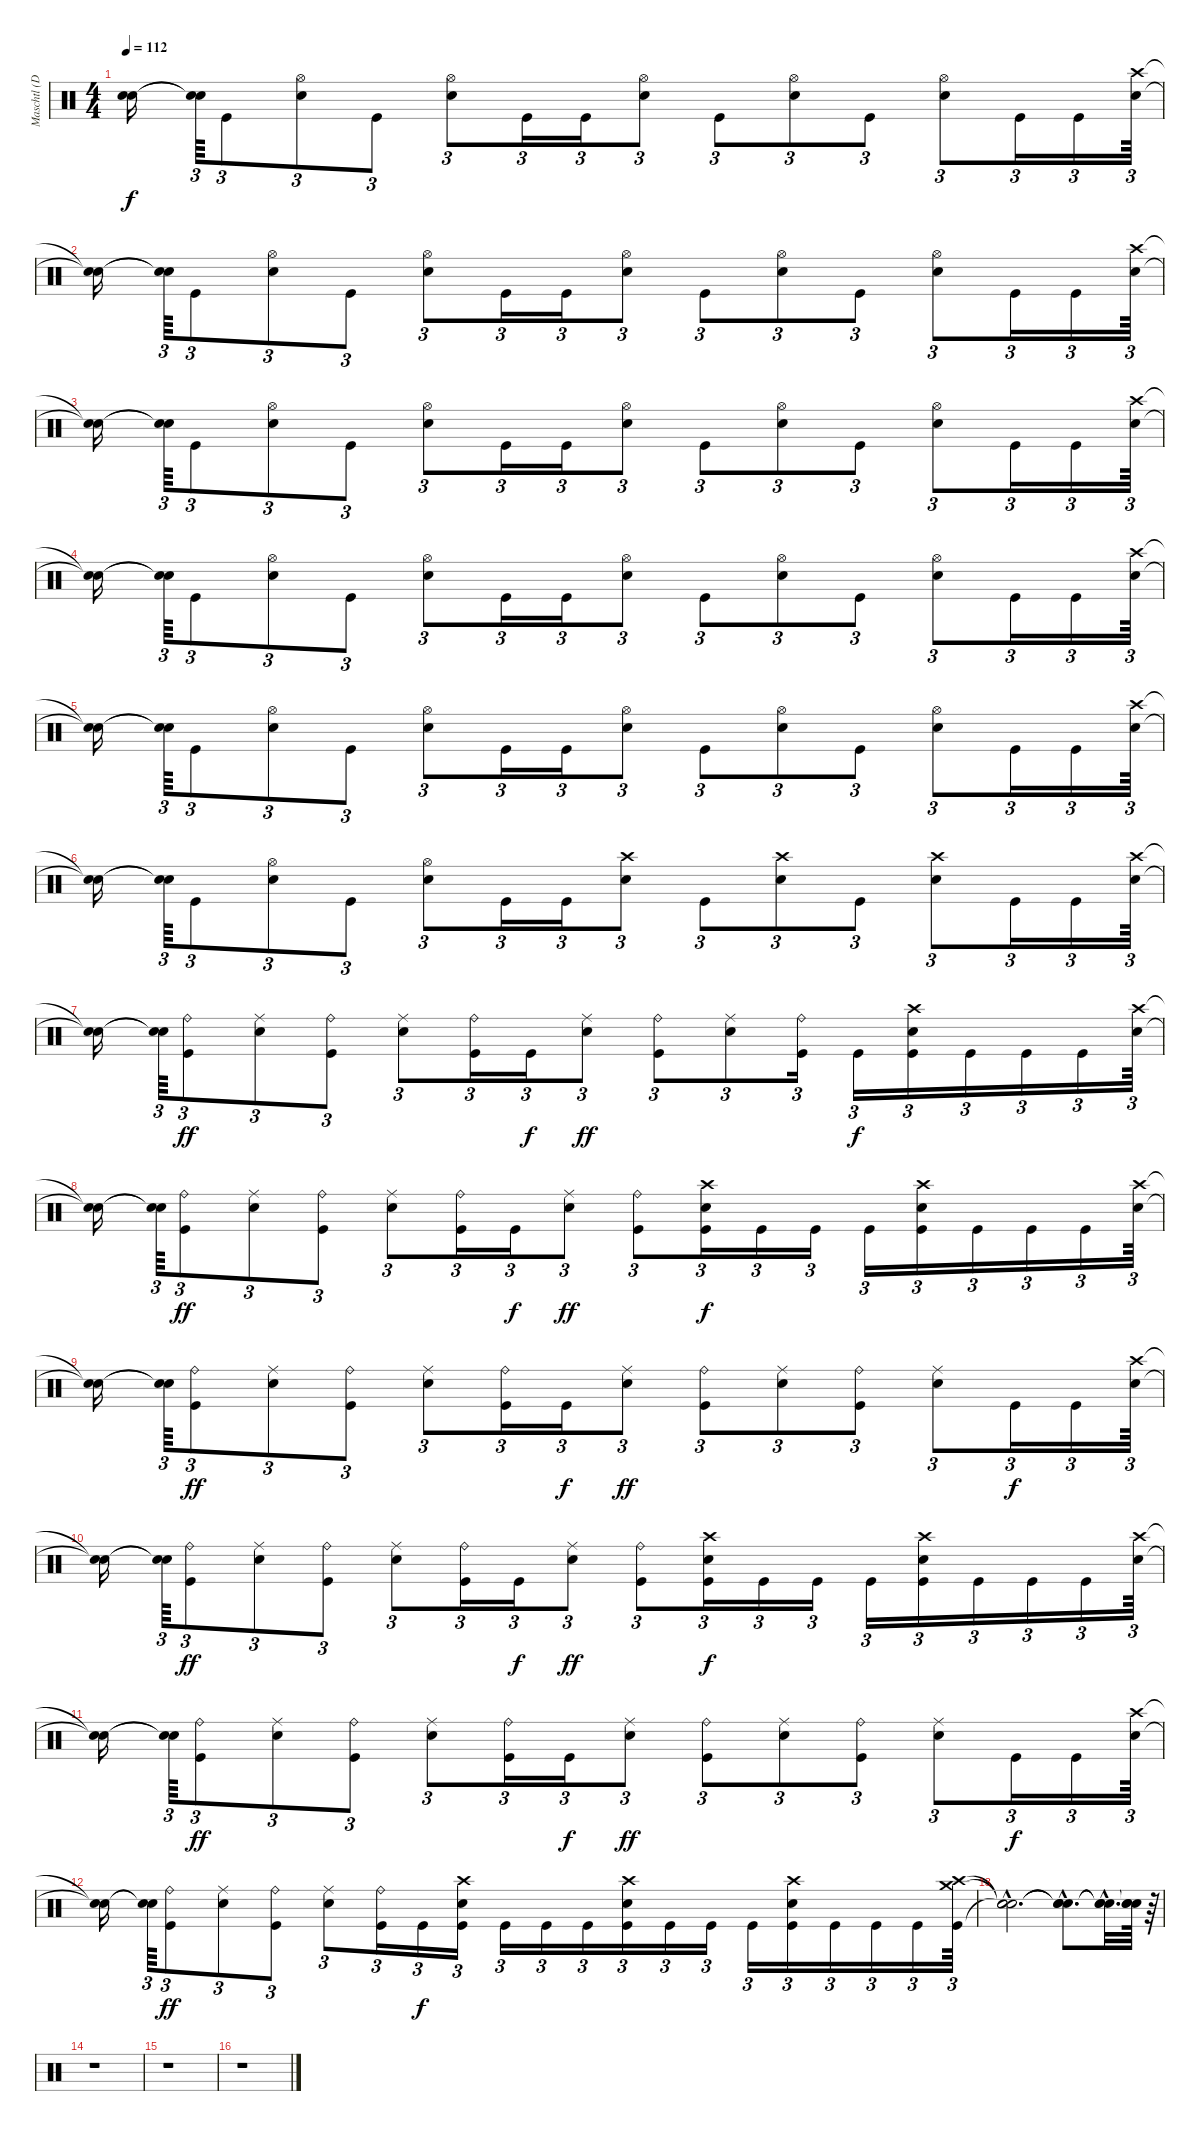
\track ("Maschtl (Drums)" "Maschtl (D") {instrument percussion}
\staff {score}
\articulation defaults
\ts (4 4)
\tempo 112
\clef neutral
\ks c
("Snare (hit)"{t} "Snare (hit)"{t}).16{dy f} ("Snare (hit)"{t} "Snare (hit)"{t}).64{tu (3 2)} "Kick (hit)".8{tu (3 2)} ("Hi-Hat (open)" "Electric Snare (hit)").8{tu (3 2)} "Kick (hit)".8{tu (3 2)} ("Hi-Hat (open)" "Electric Snare (hit)").8{tu (3 2)} "Kick (hit)".16{tu (3 2)} "Kick (hit)".16{tu (3 2)} ("Hi-Hat (open)" "Electric Snare (hit)").8{tu (3 2)} "Kick (hit)".8{tu (3 2)} ("Hi-Hat (open)" "Electric Snare (hit)").8{tu (3 2)} "Kick (hit)".8{tu (3 2)} ("Hi-Hat (open)" "Electric Snare (hit)").8{tu (3 2)} "Kick (hit)".16{tu (3 2)} "Kick (hit)".16{tu (3 2)} ("Crash high (hit)" "Electric Snare (hit)").64{tu (3 2)} |
("Snare (hit)"{t} "Snare (hit)"{t}).16 ("Snare (hit)"{t} "Snare (hit)"{t}).64{tu (3 2)} "Kick (hit)".8{tu (3 2)} ("Hi-Hat (open)" "Electric Snare (hit)").8{tu (3 2)} "Kick (hit)".8{tu (3 2)} ("Hi-Hat (open)" "Electric Snare (hit)").8{tu (3 2)} "Kick (hit)".16{tu (3 2)} "Kick (hit)".16{tu (3 2)} ("Hi-Hat (open)" "Electric Snare (hit)").8{tu (3 2)} "Kick (hit)".8{tu (3 2)} ("Hi-Hat (open)" "Electric Snare (hit)").8{tu (3 2)} "Kick (hit)".8{tu (3 2)} ("Hi-Hat (open)" "Electric Snare (hit)").8{tu (3 2)} "Kick (hit)".16{tu (3 2)} "Kick (hit)".16{tu (3 2)} ("Crash high (hit)" "Electric Snare (hit)").64{tu (3 2)} |
("Snare (hit)"{t} "Snare (hit)"{t}).16 ("Snare (hit)"{t} "Snare (hit)"{t}).64{tu (3 2)} "Kick (hit)".8{tu (3 2)} ("Hi-Hat (open)" "Electric Snare (hit)").8{tu (3 2)} "Kick (hit)".8{tu (3 2)} ("Hi-Hat (open)" "Electric Snare (hit)").8{tu (3 2)} "Kick (hit)".16{tu (3 2)} "Kick (hit)".16{tu (3 2)} ("Hi-Hat (open)" "Electric Snare (hit)").8{tu (3 2)} "Kick (hit)".8{tu (3 2)} ("Hi-Hat (open)" "Electric Snare (hit)").8{tu (3 2)} "Kick (hit)".8{tu (3 2)} ("Hi-Hat (open)" "Electric Snare (hit)").8{tu (3 2)} "Kick (hit)".16{tu (3 2)} "Kick (hit)".16{tu (3 2)} ("Crash high (hit)" "Electric Snare (hit)").64{tu (3 2)} |
("Snare (hit)"{t} "Snare (hit)"{t}).16 ("Snare (hit)"{t} "Snare (hit)"{t}).64{tu (3 2)} "Kick (hit)".8{tu (3 2)} ("Hi-Hat (open)" "Electric Snare (hit)").8{tu (3 2)} "Kick (hit)".8{tu (3 2)} ("Hi-Hat (open)" "Electric Snare (hit)").8{tu (3 2)} "Kick (hit)".16{tu (3 2)} "Kick (hit)".16{tu (3 2)} ("Hi-Hat (open)" "Electric Snare (hit)").8{tu (3 2)} "Kick (hit)".8{tu (3 2)} ("Hi-Hat (open)" "Electric Snare (hit)").8{tu (3 2)} "Kick (hit)".8{tu (3 2)} ("Hi-Hat (open)" "Electric Snare (hit)").8{tu (3 2)} "Kick (hit)".16{tu (3 2)} "Kick (hit)".16{tu (3 2)} ("Crash high (hit)" "Electric Snare (hit)").64{tu (3 2)} |
("Snare (hit)"{t} "Snare (hit)"{t}).16 ("Snare (hit)"{t} "Snare (hit)"{t}).64{tu (3 2)} "Kick (hit)".8{tu (3 2)} ("Hi-Hat (open)" "Electric Snare (hit)").8{tu (3 2)} "Kick (hit)".8{tu (3 2)} ("Hi-Hat (open)" "Electric Snare (hit)").8{tu (3 2)} "Kick (hit)".16{tu (3 2)} "Kick (hit)".16{tu (3 2)} ("Hi-Hat (open)" "Electric Snare (hit)").8{tu (3 2)} "Kick (hit)".8{tu (3 2)} ("Hi-Hat (open)" "Electric Snare (hit)").8{tu (3 2)} "Kick (hit)".8{tu (3 2)} ("Hi-Hat (open)" "Electric Snare (hit)").8{tu (3 2)} "Kick (hit)".16{tu (3 2)} "Kick (hit)".16{tu (3 2)} ("Crash high (hit)" "Electric Snare (hit)").64{tu (3 2)} |
("Snare (hit)"{t} "Snare (hit)"{t}).16 ("Snare (hit)"{t} "Snare (hit)"{t}).64{tu (3 2)} "Kick (hit)".8{tu (3 2)} ("Hi-Hat (open)" "Electric Snare (hit)").8{tu (3 2)} "Kick (hit)".8{tu (3 2)} ("Hi-Hat (open)" "Electric Snare (hit)").8{tu (3 2)} "Kick (hit)".16{tu (3 2)} "Kick (hit)".16{tu (3 2)} ("Crash high (hit)" "Electric Snare (hit)").8{tu (3 2)} "Kick (hit)".8{tu (3 2)} ("Crash high (hit)" "Electric Snare (hit)").8{tu (3 2)} "Kick (hit)".8{tu (3 2)} ("Crash high (hit)" "Electric Snare (hit)").8{tu (3 2)} "Kick (hit)".16{tu (3 2)} "Kick (hit)".16{tu (3 2)} ("Crash high (hit)" "Electric Snare (hit)").64{tu (3 2)} |
("Snare (hit)"{t} "Snare (hit)"{t}).16 ("Snare (hit)"{t} "Snare (hit)"{t}).64{tu (3 2)} ("Ride (bell)" "Kick (hit)").8{tu (3 2) dy ff} ("Ride (middle)" "Electric Snare (hit)").8{tu (3 2)} ("Ride (bell)" "Kick (hit)").8{tu (3 2)} ("Ride (middle)" "Electric Snare (hit)").8{tu (3 2)} ("Ride (bell)" "Kick (hit)").16{tu (3 2)} "Kick (hit)".16{tu (3 2) dy f} ("Ride (middle)" "Electric Snare (hit)").8{tu (3 2) dy ff} ("Ride (bell)" "Kick (hit)").8{tu (3 2)} ("Ride (middle)" "Electric Snare (hit)").8{tu (3 2)} ("Ride (bell)" "Kick (hit)").16{tu (3 2)} "Kick (hit)".16{tu (3 2) dy f} ("Crash high (hit)" "Electric Snare (hit)" "Kick (hit)").16{tu (3 2)} "Kick (hit)".16{tu (3 2)} "Kick (hit)".16{tu (3 2)} "Kick (hit)".16{tu (3 2)} ("Crash high (hit)" "Electric Snare (hit)").64{tu (3 2)} |
("Snare (hit)"{t} "Snare (hit)"{t}).16 ("Snare (hit)"{t} "Snare (hit)"{t}).64{tu (3 2)} ("Ride (bell)" "Kick (hit)").8{tu (3 2) dy ff} ("Ride (middle)" "Electric Snare (hit)").8{tu (3 2)} ("Ride (bell)" "Kick (hit)").8{tu (3 2)} ("Ride (middle)" "Electric Snare (hit)").8{tu (3 2)} ("Ride (bell)" "Kick (hit)").16{tu (3 2)} "Kick (hit)".16{tu (3 2) dy f} ("Ride (middle)" "Electric Snare (hit)").8{tu (3 2) dy ff} ("Ride (bell)" "Kick (hit)").8{tu (3 2)} ("Crash high (hit)" "Electric Snare (hit)" "Kick (hit)").16{tu (3 2) dy f} "Kick (hit)".16{tu (3 2)} "Kick (hit)".16{tu (3 2)} "Kick (hit)".16{tu (3 2)} ("Crash high (hit)" "Electric Snare (hit)" "Kick (hit)").16{tu (3 2)} "Kick (hit)".16{tu (3 2)} "Kick (hit)".16{tu (3 2)} "Kick (hit)".16{tu (3 2)} ("Crash high (hit)" "Electric Snare (hit)").64{tu (3 2)} |
("Snare (hit)"{t} "Snare (hit)"{t}).16 ("Snare (hit)"{t} "Snare (hit)"{t}).64{tu (3 2)} ("Ride (bell)" "Kick (hit)").8{tu (3 2) dy ff} ("Ride (middle)" "Electric Snare (hit)").8{tu (3 2)} ("Ride (bell)" "Kick (hit)").8{tu (3 2)} ("Ride (middle)" "Electric Snare (hit)").8{tu (3 2)} ("Ride (bell)" "Kick (hit)").16{tu (3 2)} "Kick (hit)".16{tu (3 2) dy f} ("Ride (middle)" "Electric Snare (hit)").8{tu (3 2) dy ff} ("Ride (bell)" "Kick (hit)").8{tu (3 2)} ("Ride (middle)" "Electric Snare (hit)").8{tu (3 2)} ("Ride (bell)" "Kick (hit)").8{tu (3 2)} ("Ride (middle)" "Electric Snare (hit)").8{tu (3 2)} "Kick (hit)".16{tu (3 2) dy f} "Kick (hit)".16{tu (3 2)} ("Crash high (hit)" "Electric Snare (hit)").64{tu (3 2)} |
("Snare (hit)"{t} "Snare (hit)"{t}).16 ("Snare (hit)"{t} "Snare (hit)"{t}).64{tu (3 2)} ("Ride (bell)" "Kick (hit)").8{tu (3 2) dy ff} ("Ride (middle)" "Electric Snare (hit)").8{tu (3 2)} ("Ride (bell)" "Kick (hit)").8{tu (3 2)} ("Ride (middle)" "Electric Snare (hit)").8{tu (3 2)} ("Ride (bell)" "Kick (hit)").16{tu (3 2)} "Kick (hit)".16{tu (3 2) dy f} ("Ride (middle)" "Electric Snare (hit)").8{tu (3 2) dy ff} ("Ride (bell)" "Kick (hit)").8{tu (3 2)} ("Crash high (hit)" "Electric Snare (hit)" "Kick (hit)").16{tu (3 2) dy f} "Kick (hit)".16{tu (3 2)} "Kick (hit)".16{tu (3 2)} "Kick (hit)".16{tu (3 2)} ("Crash high (hit)" "Electric Snare (hit)" "Kick (hit)").16{tu (3 2)} "Kick (hit)".16{tu (3 2)} "Kick (hit)".16{tu (3 2)} "Kick (hit)".16{tu (3 2)} ("Crash high (hit)" "Electric Snare (hit)").64{tu (3 2)} |
("Snare (hit)"{t} "Snare (hit)"{t}).16 ("Snare (hit)"{t} "Snare (hit)"{t}).64{tu (3 2)} ("Ride (bell)" "Kick (hit)").8{tu (3 2) dy ff} ("Ride (middle)" "Electric Snare (hit)").8{tu (3 2)} ("Ride (bell)" "Kick (hit)").8{tu (3 2)} ("Ride (middle)" "Electric Snare (hit)").8{tu (3 2)} ("Ride (bell)" "Kick (hit)").16{tu (3 2)} "Kick (hit)".16{tu (3 2) dy f} ("Ride (middle)" "Electric Snare (hit)").8{tu (3 2) dy ff} ("Ride (bell)" "Kick (hit)").8{tu (3 2)} ("Ride (middle)" "Electric Snare (hit)").8{tu (3 2)} ("Ride (bell)" "Kick (hit)").8{tu (3 2)} ("Ride (middle)" "Electric Snare (hit)").8{tu (3 2)} "Kick (hit)".16{tu (3 2) dy f} "Kick (hit)".16{tu (3 2)} ("Crash high (hit)" "Electric Snare (hit)").64{tu (3 2)} |
("Snare (hit)"{t} "Snare (hit)"{t}).16 ("Snare (hit)"{t} "Snare (hit)"{t}).64{tu (3 2)} ("Ride (bell)" "Kick (hit)").8{tu (3 2) dy ff} ("Ride (middle)" "Electric Snare (hit)").8{tu (3 2)} ("Ride (bell)" "Kick (hit)").8{tu (3 2)} ("Ride (middle)" "Electric Snare (hit)").8{tu (3 2)} ("Ride (bell)" "Kick (hit)").16{tu (3 2)} "Kick (hit)".16{tu (3 2) dy f} ("Crash high (hit)" "Electric Snare (hit)" "Kick (hit)").16{tu (3 2)} "Kick (hit)".16{tu (3 2)} "Kick (hit)".16{tu (3 2)} "Kick (hit)".16{tu (3 2)} ("Crash high (hit)" "Electric Snare (hit)" "Kick (hit)").16{tu (3 2)} "Kick (hit)".16{tu (3 2)} "Kick (hit)".16{tu (3 2)} "Kick (hit)".16{tu (3 2)} ("Crash high (hit)" "Electric Snare (hit)" "Kick (hit)").16{tu (3 2)} "Kick (hit)".16{tu (3 2)} "Kick (hit)".16{tu (3 2)} "Kick (hit)".16{tu (3 2)} ("Crash high (hit)" "Crash medium (hit)" "Kick (hit)").64{tu (3 2)} |
("Snare (hit)"{hac t} "Snare (hit)"{hac t} "Snare (hit)"{hac t}).2{d} ("Snare (hit)"{hac t} "Snare (hit)"{hac t} "Snare (hit)"{hac t}).8{d} ("Snare (hit)"{hac t} "Snare (hit)"{hac t} "Snare (hit)"{hac t}).32{d} ("Snare (hit)"{t} "Snare (hit)"{t} "Snare (hit)"{t}).64 r.64{tu (3 2)} |
r.1 |
r.1 |
r.1
